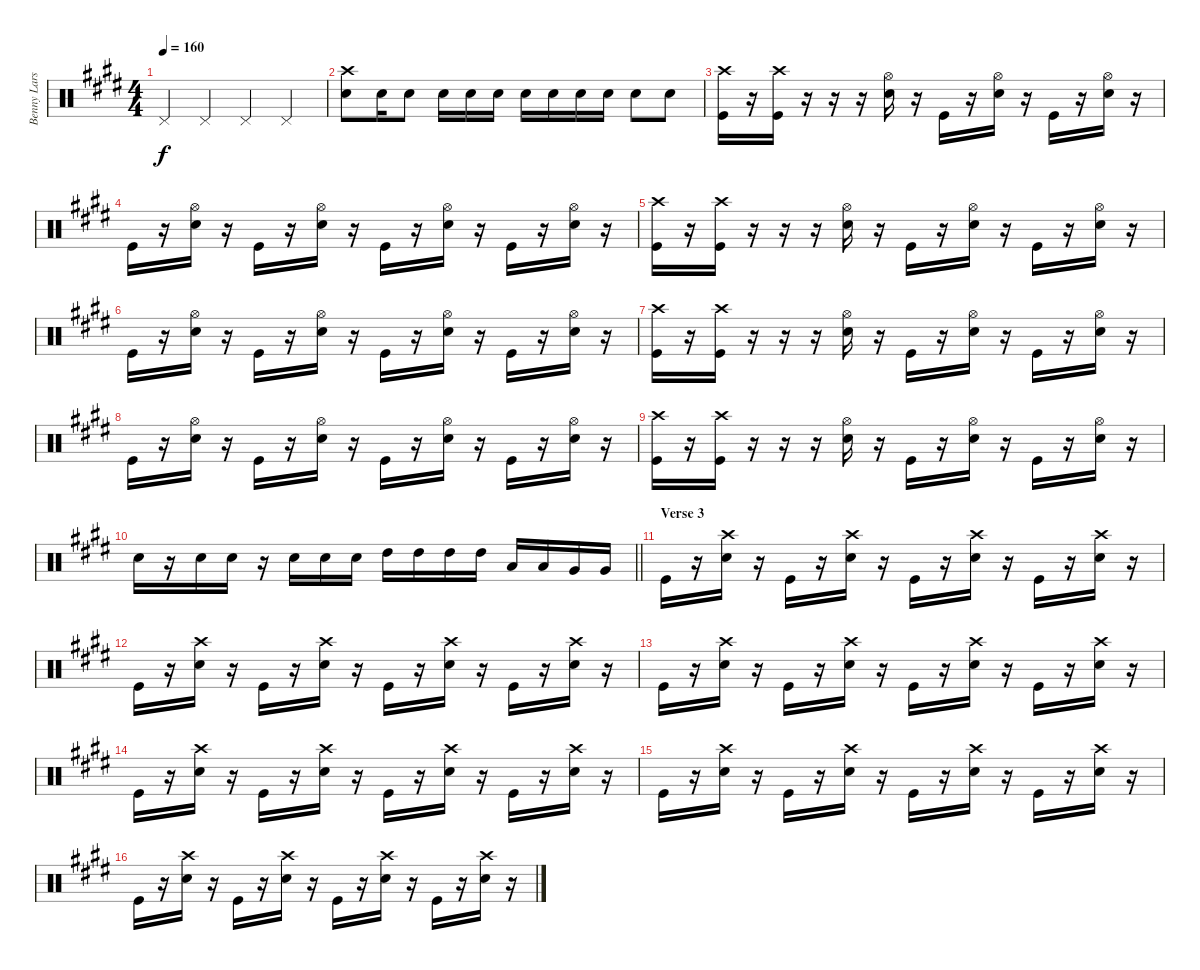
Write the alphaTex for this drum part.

\track ("Benny Larsson" "Benny Lars") {instrument percussion}
\staff {score}
\articulation defaults
\ts (4 4)
\tempo 160
\clef neutral
\ks e "Pedal Hi-Hat (hit)".4{dy f} "Pedal Hi-Hat (hit)".4 "Pedal Hi-Hat (hit)".4 "Pedal Hi-Hat (hit)".4
|
("Crash high (hit)" "Snare (hit) 2").8 "Snare (hit) 2".16 "Snare (hit) 2".8 "Snare (hit) 2".16 "Snare (hit) 2".16 "Snare (hit) 2".16 "Snare (hit) 2".16 "Snare (hit) 2".16 "Snare (hit) 2".16 "Snare (hit) 2".16 "Snare (hit) 2".8 "Snare (hit) 2".8 |
("Crash high (hit)" "Kick (hit)").16 r.16 ("Crash high (hit)" "Kick (hit)").16 r.16 r.16 r.16 ("Hi-Hat (open)" "Snare (hit) 2").16 r.16 "Kick (hit)".16 r.16 ("Hi-Hat (open)" "Snare (hit) 2").16 r.16 "Kick (hit)".16 r.16 ("Hi-Hat (open)" "Snare (hit) 2").16 r.16 |
"Kick (hit)".16 r.16 ("Hi-Hat (open)" "Snare (hit) 2").16 r.16 "Kick (hit)".16 r.16 ("Hi-Hat (open)" "Snare (hit) 2").16 r.16 "Kick (hit)".16 r.16 ("Hi-Hat (open)" "Snare (hit) 2").16 r.16 "Kick (hit)".16 r.16 ("Hi-Hat (open)" "Snare (hit) 2").16 r.16 |
("Crash high (hit)" "Kick (hit)").16 r.16 ("Crash high (hit)" "Kick (hit)").16 r.16 r.16 r.16 ("Hi-Hat (open)" "Snare (hit) 2").16 r.16 "Kick (hit)".16 r.16 ("Hi-Hat (open)" "Snare (hit) 2").16 r.16 "Kick (hit)".16 r.16 ("Hi-Hat (open)" "Snare (hit) 2").16 r.16 |
"Kick (hit)".16 r.16 ("Hi-Hat (open)" "Snare (hit) 2").16 r.16 "Kick (hit)".16 r.16 ("Hi-Hat (open)" "Snare (hit) 2").16 r.16 "Kick (hit)".16 r.16 ("Hi-Hat (open)" "Snare (hit) 2").16 r.16 "Kick (hit)".16 r.16 ("Hi-Hat (open)" "Snare (hit) 2").16 r.16 |
("Crash high (hit)" "Kick (hit)").16 r.16 ("Crash high (hit)" "Kick (hit)").16 r.16 r.16 r.16 ("Hi-Hat (open)" "Snare (hit) 2").16 r.16 "Kick (hit)".16 r.16 ("Hi-Hat (open)" "Snare (hit) 2").16 r.16 "Kick (hit)".16 r.16 ("Hi-Hat (open)" "Snare (hit) 2").16 r.16 |
"Kick (hit)".16 r.16 ("Hi-Hat (open)" "Snare (hit) 2").16 r.16 "Kick (hit)".16 r.16 ("Hi-Hat (open)" "Snare (hit) 2").16 r.16 "Kick (hit)".16 r.16 ("Hi-Hat (open)" "Snare (hit) 2").16 r.16 "Kick (hit)".16 r.16 ("Hi-Hat (open)" "Snare (hit) 2").16 r.16 |
("Crash high (hit)" "Kick (hit)").16 r.16 ("Crash high (hit)" "Kick (hit)").16 r.16 r.16 r.16 ("Hi-Hat (open)" "Snare (hit) 2").16 r.16 "Kick (hit)".16 r.16 ("Hi-Hat (open)" "Snare (hit) 2").16 r.16 "Kick (hit)".16 r.16 ("Hi-Hat (open)" "Snare (hit) 2").16 r.16 |
\barLineRight lightlight "Snare (hit) 2".16
r.16 "Snare (hit) 2".16 "Snare (hit) 2".16 r.16 "Snare (hit) 2".16 "Snare (hit) 2".16 "Snare (hit) 2".16 "High Tom (hit)".16 "High Tom (hit)".16 "High Tom (hit)".16 "High Tom (hit)".16 "Low Tom (hit)".16 "Low Tom (hit)".16 "Very Low Tom (hit)".16 "Very Low Tom (hit)".16 |
\section ("" "Verse 3")
"Kick (hit)".16 r.16 ("Crash high (hit)" "Snare (hit) 2").16 r.16 "Kick (hit)".16 r.16 ("Crash high (hit)" "Snare (hit) 2").16 r.16 "Kick (hit)".16 r.16 ("Crash high (hit)" "Snare (hit) 2").16 r.16 "Kick (hit)".16 r.16 ("Crash high (hit)" "Snare (hit) 2").16 r.16 |
"Kick (hit)".16 r.16 ("Crash high (hit)" "Snare (hit) 2").16 r.16 "Kick (hit)".16 r.16 ("Crash high (hit)" "Snare (hit) 2").16 r.16 "Kick (hit)".16 r.16 ("Crash high (hit)" "Snare (hit) 2").16 r.16 "Kick (hit)".16 r.16 ("Crash high (hit)" "Snare (hit) 2").16 r.16 |
"Kick (hit)".16 r.16 ("Crash high (hit)" "Snare (hit) 2").16 r.16 "Kick (hit)".16 r.16 ("Crash high (hit)" "Snare (hit) 2").16 r.16 "Kick (hit)".16 r.16 ("Crash high (hit)" "Snare (hit) 2").16 r.16 "Kick (hit)".16 r.16 ("Crash high (hit)" "Snare (hit) 2").16 r.16 |
"Kick (hit)".16 r.16 ("Crash high (hit)" "Snare (hit) 2").16 r.16 "Kick (hit)".16 r.16 ("Crash high (hit)" "Snare (hit) 2").16 r.16 "Kick (hit)".16 r.16 ("Crash high (hit)" "Snare (hit) 2").16 r.16 "Kick (hit)".16 r.16 ("Crash high (hit)" "Snare (hit) 2").16 r.16 |
"Kick (hit)".16 r.16 ("Crash high (hit)" "Snare (hit) 2").16 r.16 "Kick (hit)".16 r.16 ("Crash high (hit)" "Snare (hit) 2").16 r.16 "Kick (hit)".16 r.16 ("Crash high (hit)" "Snare (hit) 2").16 r.16 "Kick (hit)".16 r.16 ("Crash high (hit)" "Snare (hit) 2").16 r.16 |
"Kick (hit)".16 r.16 ("Crash high (hit)" "Snare (hit) 2").16 r.16 "Kick (hit)".16 r.16 ("Crash high (hit)" "Snare (hit) 2").16 r.16 "Kick (hit)".16 r.16 ("Crash high (hit)" "Snare (hit) 2").16 r.16 "Kick (hit)".16 r.16 ("Crash high (hit)" "Snare (hit) 2").16 r.16
